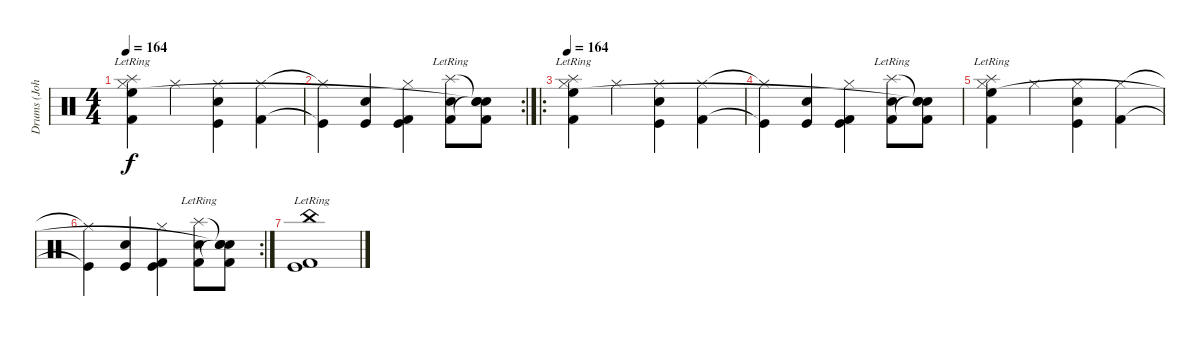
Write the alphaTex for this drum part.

\track ("Drums (John)" "Drums (Joh") {instrument percussion}
\staff {score}
\articulation defaults
\ts (4 4)
\tempo 164
\clef neutral
\ks c
("Splash (hit)"{lr} "Hi-Hat (closed)" "Kick (hit) 2" "High Floor Tom (hit)").4{dy f} "Hi-Hat (closed)".4 ("Hi-Hat (closed)" "Electric Snare (hit)" "Kick (hit)").4 ("Hi-Hat (closed)" "Kick (hit) 2").4 |
\rc 2
("Hi-Hat (closed)"{t} "Kick (hit)"{t}).4 ("Electric Snare (hit)" "Kick (hit)").4 ("Hi-Hat (closed)" "Kick (hit) 2" "Kick (hit)").4 ("Splash (hit)"{lr} "Electric Snare (hit)" "Kick (hit) 2").8 ("Snare (hit)"{t} "Kick (hit) 2" "Snare (hit)"{t} "Snare (hit)"{t}).8 |
\ro
\tempo 164
("Splash (hit)"{lr} "Hi-Hat (closed)" "Kick (hit) 2" "High Floor Tom (hit)").4 "Hi-Hat (closed)".4 ("Hi-Hat (closed)" "Electric Snare (hit)" "Kick (hit)").4 ("Hi-Hat (closed)" "Kick (hit) 2").4 |
("Hi-Hat (closed)"{t} "Kick (hit)"{t}).4 ("Electric Snare (hit)" "Kick (hit)").4 ("Hi-Hat (closed)" "Kick (hit) 2" "Kick (hit)").4 ("Splash (hit)"{lr} "Electric Snare (hit)" "Kick (hit) 2").8 ("Snare (hit)"{t} "Kick (hit) 2" "Snare (hit)"{t} "Snare (hit)"{t}).8 |
("Splash (hit)"{lr} "Hi-Hat (closed)" "Kick (hit) 2" "High Floor Tom (hit)").4 "Hi-Hat (closed)".4 ("Hi-Hat (closed)" "Electric Snare (hit)" "Kick (hit)").4 ("Hi-Hat (closed)" "Kick (hit) 2").4 |
\rc 2
("Hi-Hat (closed)"{t} "Kick (hit)"{t}).4 ("Electric Snare (hit)" "Kick (hit)").4 ("Hi-Hat (closed)" "Kick (hit) 2" "Kick (hit)").4 ("Splash (hit)"{lr} "Electric Snare (hit)" "Kick (hit) 2").8 ("Snare (hit)"{t} "Kick (hit) 2" "Snare (hit)"{t} "Snare (hit)"{t}).8 |
("China (hit)"{lr} "Kick (hit)" "Kick (hit) 2").1
